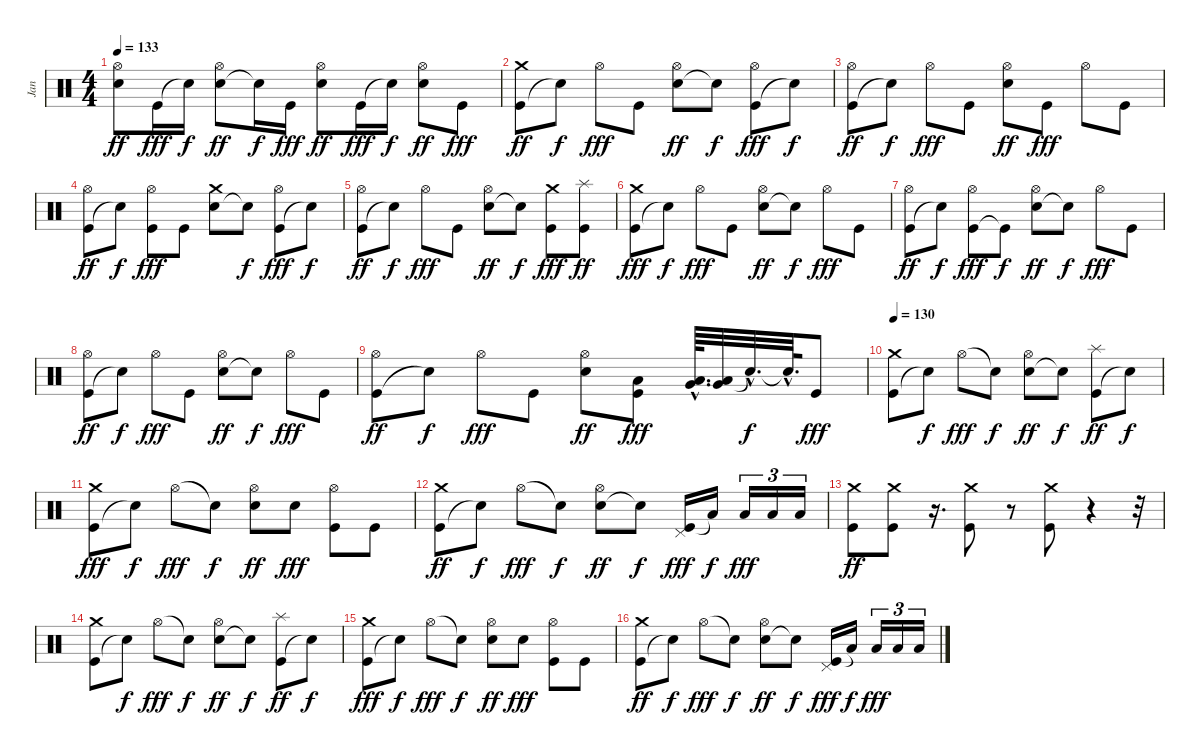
\track ("Jan" "Jan") {instrument percussion}
\staff {score}
\articulation defaults
\ts (4 4)
\tempo 133
\clef neutral
\ks c
("Snare (hit) 2" "Hi-Hat (open)").8{dy ff} "Kick (hit)".16{dy fff} "Snare (hit)"{t}.16{dy f} ("Snare (hit) 2" "Hi-Hat (open)").8{dy ff} "Snare (hit)"{t}.16{dy f} "Kick (hit)".16{dy fff} ("Snare (hit) 2" "Hi-Hat (open)").8{dy ff} "Kick (hit)".16{dy fff} "Snare (hit)"{t}.16{dy f} ("Snare (hit) 2" "Hi-Hat (open)").8{dy ff} "Kick (hit)".8{dy fff} |
("Kick (hit)" "Crash medium (hit)").8{dy ff} "Snare (hit)"{t}.8{dy f} "Hi-Hat (open)".8{dy fff} "Kick (hit)".8 ("Snare (hit) 2" "Hi-Hat (open)").8{dy ff} "Snare (hit)"{t}.8{dy f} ("Kick (hit)" "Hi-Hat (open)").8{dy fff} "Snare (hit)"{t}.8{dy f} |
("Kick (hit)" "Hi-Hat (open)").8{dy ff} "Snare (hit)"{t}.8{dy f} "Hi-Hat (open)".8{dy fff} "Kick (hit)".8 ("Snare (hit) 2" "Hi-Hat (open)").8{dy ff} "Kick (hit)".8{dy fff} "Hi-Hat (open)".8 "Kick (hit)".8 |
("Kick (hit)" "Hi-Hat (open)").8{dy ff} "Snare (hit)"{t}.8{dy f} ("Kick (hit)" "Hi-Hat (open)").8{dy fff} "Kick (hit)".8 ("Snare (hit) 2" "Crash medium (hit)").8 "Snare (hit)"{t}.8{dy f} ("Kick (hit)" "Hi-Hat (open)").8{dy fff} "Snare (hit)"{t}.8{dy f} |
("Kick (hit)" "Hi-Hat (open)").8{dy ff} "Snare (hit)"{t}.8{dy f} "Hi-Hat (open)".8{dy fff} "Kick (hit)".8 ("Snare (hit) 2" "Hi-Hat (open)").8{dy ff} "Snare (hit)"{t}.8{dy f} ("Kick (hit)" "Crash medium (hit)").8{dy fff} ("Kick (hit)" "Splash (hit)").8{dy ff} |
("Kick (hit)" "Crash medium (hit)").8{dy fff} "Snare (hit)"{t}.8{dy f} "Hi-Hat (open)".8{dy fff} "Kick (hit)".8 ("Snare (hit) 2" "Hi-Hat (open)").8{dy ff} "Snare (hit)"{t}.8{dy f} "Hi-Hat (open)".8{dy fff} "Kick (hit)".8 |
("Kick (hit)" "Hi-Hat (open)").8{dy ff} "Snare (hit)"{t}.8{dy f} ("Kick (hit)" "Hi-Hat (open)").8{dy fff} "Kick (hit)"{t}.8{dy f} ("Snare (hit) 2" "Hi-Hat (open)").8{dy ff} "Snare (hit)"{t}.8{dy f} "Hi-Hat (open)".8{dy fff} "Kick (hit)".8 |
("Kick (hit)" "Hi-Hat (open)").8{dy ff} "Snare (hit)"{t}.8{dy f} "Hi-Hat (open)".8{dy fff} "Kick (hit)".8 ("Snare (hit) 2" "Hi-Hat (open)").8{dy ff} "Snare (hit)"{t}.8{dy f} "Hi-Hat (open)".8{dy fff} "Kick (hit)".8 |
("Kick (hit)" "Hi-Hat (open)").8{dy ff} "Snare (hit)"{t}.8{dy f} "Hi-Hat (open)".8{dy fff} "Kick (hit)".8 ("Snare (hit) 2" "Hi-Hat (open)").8{dy ff} ("Kick (hit)" "Low Tom (hit)").8{dy fff} ("Low Tom (hit)"{hac} "Very Low Tom (hit)"{hac}).64{d} ("Very Low Tom (hit)" "Low Floor Tom (hit)").32 "Snare (hit)"{hac t}.32{d dy f} "Snare (hit)"{hac t}.64{d} "Kick (hit)".8{dy fff} |
\tempo 130
("Kick (hit)" "Crash medium (hit)").8 "Snare (hit)"{t}.8{dy f} "Hi-Hat (open)".8{dy fff} "Snare (hit)"{t}.8{dy f} ("Snare (hit) 2" "Hi-Hat (open)").8{dy ff} "Snare (hit)"{t}.8{dy f} ("Kick (hit)" "Splash (hit)").8{dy ff} "Snare (hit)"{t}.8{dy f} |
("Kick (hit)" "Crash medium (hit)").8{dy fff} "Snare (hit)"{t}.8{dy f} "Hi-Hat (open)".8{dy fff} "Snare (hit)"{t}.8{dy f} ("Snare (hit) 2" "Hi-Hat (open)").8{dy ff} "Snare (hit) 2".8{dy fff} ("Kick (hit)" "Hi-Hat (open)").8 "Kick (hit)".8 |
("Kick (hit)" "Crash medium (hit)").8{dy ff} "Snare (hit)"{t}.8{dy f} "Hi-Hat (open)".8{dy fff} "Snare (hit)"{t}.8{dy f} ("Snare (hit) 2" "Hi-Hat (open)").8{dy ff} "Snare (hit)"{t}.8{dy f} ("Kick (hit)" "Pedal Hi-Hat (hit)").16{dy fff} "Low Tom (hit)"{t}.16{dy f} "Low Tom (hit)".16{tu (3 2) dy fff} "Low Tom (hit)".16{tu (3 2)} "Low Tom (hit)".16{tu (3 2)} |
("Kick (hit)" "Crash medium (hit)").8{dy ff} ("Kick (hit)" "Crash medium (hit)").8 r.16{d} ("Kick (hit)" "Crash medium (hit)").8 r.8 ("Kick (hit)" "Crash medium (hit)").8 r.4 r.32 |
("Kick (hit)" "Crash medium (hit)").8 "Snare (hit)"{t}.8{dy f} "Hi-Hat (open)".8{dy fff} "Snare (hit)"{t}.8{dy f} ("Snare (hit) 2" "Hi-Hat (open)").8{dy ff} "Snare (hit)"{t}.8{dy f} ("Kick (hit)" "Splash (hit)").8{dy ff} "Snare (hit)"{t}.8{dy f} |
("Kick (hit)" "Crash medium (hit)").8{dy fff} "Snare (hit)"{t}.8{dy f} "Hi-Hat (open)".8{dy fff} "Snare (hit)"{t}.8{dy f} ("Snare (hit) 2" "Hi-Hat (open)").8{dy ff} "Snare (hit) 2".8{dy fff} ("Kick (hit)" "Hi-Hat (open)").8 "Kick (hit)".8 |
("Kick (hit)" "Crash medium (hit)").8{dy ff} "Snare (hit)"{t}.8{dy f} "Hi-Hat (open)".8{dy fff} "Snare (hit)"{t}.8{dy f} ("Snare (hit) 2" "Hi-Hat (open)").8{dy ff} "Snare (hit)"{t}.8{dy f} ("Kick (hit)" "Pedal Hi-Hat (hit)").16{dy fff} "Low Tom (hit)"{t}.16{dy f} "Low Tom (hit)".16{tu (3 2) dy fff} "Low Tom (hit)".16{tu (3 2)} "Low Tom (hit)".16{tu (3 2)}
